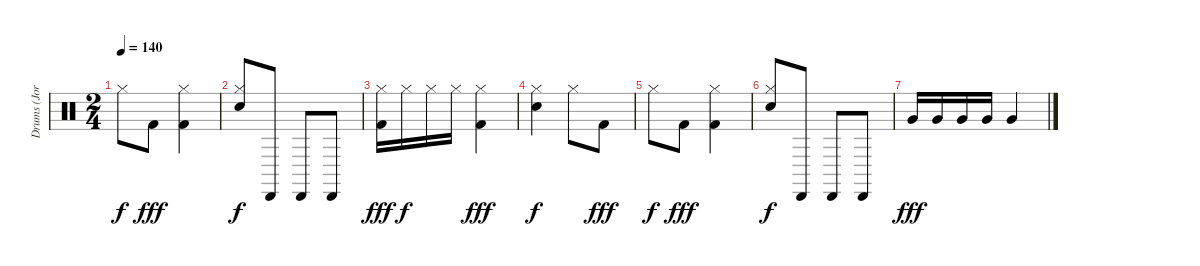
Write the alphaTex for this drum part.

\track ("Drums (Jordan Hastings)" "Drums (Jor") {instrument percussion}
\staff {score}
\articulation defaults
\ts (2 4)
\tempo 140
\clef neutral
\ks c "Hi-Hat (closed)".8{dy f} "Kick (hit) 2".8{dy fff}
("Hi-Hat (closed)" "Kick (hit) 2").4 |
("Hi-Hat (closed)" "Electric Snare (hit)").8{dy f} "Cabasa (hit)".8 "Cabasa (hit)".8 "Cabasa (hit)".8 |
("Hi-Hat (closed)" "Kick (hit) 2").16{dy fff} "Hi-Hat (closed)".16{dy f} "Hi-Hat (closed)".16 "Hi-Hat (closed)".16 ("Hi-Hat (closed)" "Kick (hit) 2").4{dy fff} |
("Hi-Hat (closed)" "Electric Snare (hit)").4{dy f} "Hi-Hat (closed)".8 "Kick (hit) 2".8{dy fff} |
"Hi-Hat (closed)".8{dy f} "Kick (hit) 2".8{dy fff} ("Hi-Hat (closed)" "Kick (hit) 2").4 |
("Hi-Hat (closed)" "Electric Snare (hit)").8{dy f} "Cabasa (hit)".8 "Cabasa (hit)".8 "Cabasa (hit)".8 |
"Very Low Tom (hit)".16{dy fff} "Very Low Tom (hit)".16 "Very Low Tom (hit)".16 "Very Low Tom (hit)".16 "Very Low Tom (hit)".4
